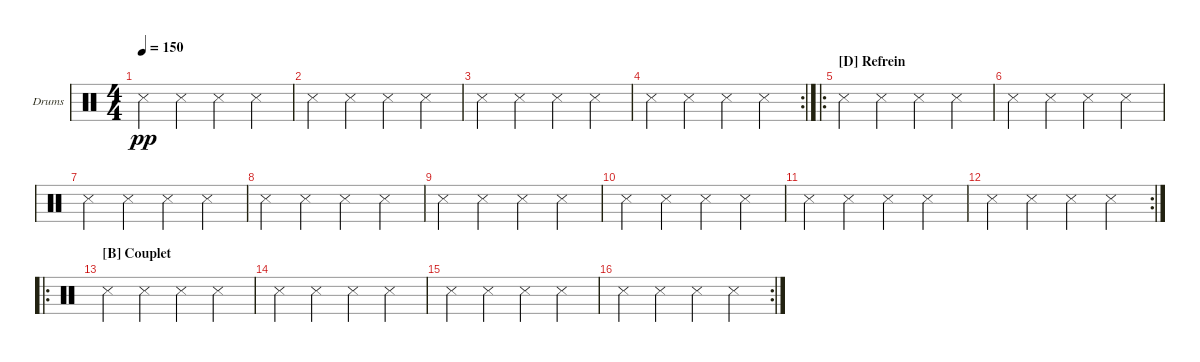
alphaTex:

\defaultSystemsLayout 4
\bracketExtendMode groupsimilarinstruments
\firstSystemTrackNameOrientation horizontal
\otherSystemsTrackNameOrientation horizontal
\track ("Drumkit" "Drums") {instrument percussion}
\staff {score}
\articulation defaults
\ts (4 4)
\tempo 150
\clef neutral
\scale
0.243478
\ks c "Snare (side stick) 3".4{dy pp} "Snare (side stick) 3".4 "Snare (side stick) 3".4 "Snare (side stick) 3".4
|
\scale
0.243478 "Snare (side stick) 3".4 "Snare (side stick) 3".4 "Snare (side stick) 3".4 "Snare (side stick) 3".4 |
\scale
0.243478 "Snare (side stick) 3".4 "Snare (side stick) 3".4 "Snare (side stick) 3".4 "Snare (side stick) 3".4 |
\rc 2
\scale
0.269565 "Snare (side stick) 3".4 "Snare (side stick) 3".4 "Snare (side stick) 3".4 "Snare (side stick) 3".4 |
\ro
\section ("D" "Refrein")
\scale
0.288136 "Snare (side stick) 3".4 "Snare (side stick) 3".4 "Snare (side stick) 3".4 "Snare (side stick) 3".4 |
\scale
0.237288 "Snare (side stick) 3".4 "Snare (side stick) 3".4 "Snare (side stick) 3".4 "Snare (side stick) 3".4 |
\scale
0.237288 "Snare (side stick) 3".4 "Snare (side stick) 3".4 "Snare (side stick) 3".4 "Snare (side stick) 3".4 |
\scale
0.237288 "Snare (side stick) 3".4 "Snare (side stick) 3".4 "Snare (side stick) 3".4 "Snare (side stick) 3".4 |
\scale
0.243478 "Snare (side stick) 3".4 "Snare (side stick) 3".4 "Snare (side stick) 3".4 "Snare (side stick) 3".4 |
\scale
0.243478 "Snare (side stick) 3".4 "Snare (side stick) 3".4 "Snare (side stick) 3".4 "Snare (side stick) 3".4 |
\scale
0.243478 "Snare (side stick) 3".4 "Snare (side stick) 3".4 "Snare (side stick) 3".4 "Snare (side stick) 3".4 |
\rc 2
\scale
0.269565 "Snare (side stick) 3".4 "Snare (side stick) 3".4 "Snare (side stick) 3".4 "Snare (side stick) 3".4 |
\ro
\section ("B" "Couplet")
\scale
0.280992 "Snare (side stick) 3".4 "Snare (side stick) 3".4 "Snare (side stick) 3".4 "Snare (side stick) 3".4 |
\scale
0.231405 "Snare (side stick) 3".4 "Snare (side stick) 3".4 "Snare (side stick) 3".4 "Snare (side stick) 3".4 |
\scale
0.231405 "Snare (side stick) 3".4 "Snare (side stick) 3".4 "Snare (side stick) 3".4 "Snare (side stick) 3".4 |
\rc 2
\scale
0.256198 "Snare (side stick) 3".4 "Snare (side stick) 3".4 "Snare (side stick) 3".4 "Snare (side stick) 3".4
